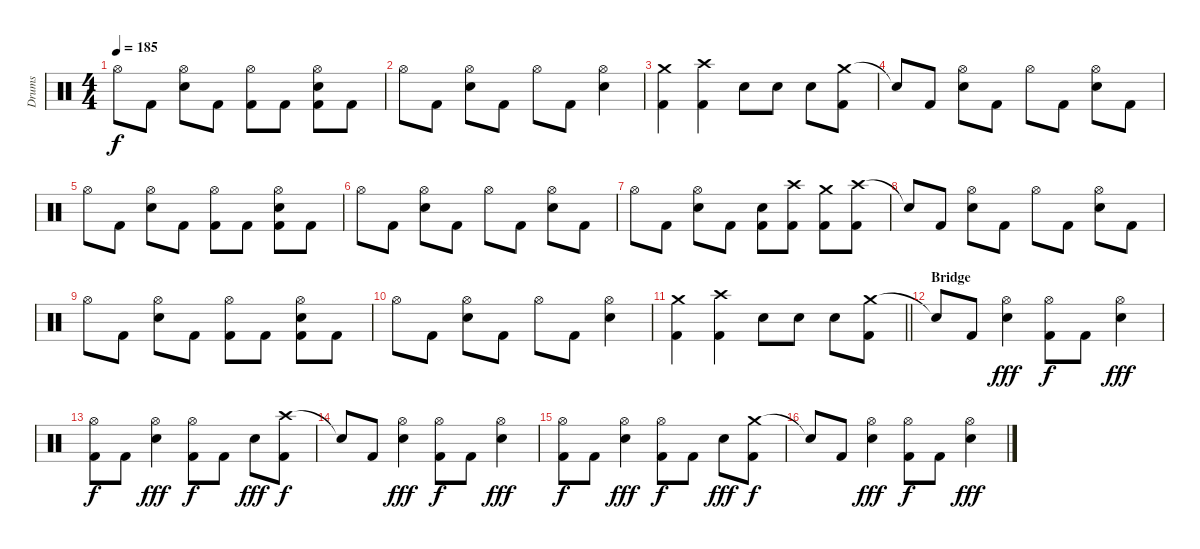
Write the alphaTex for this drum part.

\track ("Drums" "Drums") {instrument percussion}
\staff {score}
\articulation defaults
\ts (4 4)
\tempo 185
\clef neutral
\ks c "Hi-Hat (open)".8{dy f} "Kick (hit) 2".8
("Hi-Hat (open)" "Electric Snare (hit)").8 "Kick (hit) 2".8 ("Hi-Hat (open)" "Kick (hit) 2").8 "Kick (hit) 2".8 ("Hi-Hat (open)" "Electric Snare (hit)" "Kick (hit) 2").8 "Kick (hit) 2".8 |
"Hi-Hat (open)".8 "Kick (hit) 2".8 ("Hi-Hat (open)" "Electric Snare (hit)").8 "Kick (hit) 2".8 "Hi-Hat (open)".8 "Kick (hit) 2".8 ("Hi-Hat (open)" "Electric Snare (hit)").4 |
("Crash medium (hit)" "Kick (hit) 2").4 ("Crash high (hit)" "Kick (hit) 2").4 "Electric Snare (hit)".8 "Electric Snare (hit)".8 "Electric Snare (hit)".8 ("Crash medium (hit)" "Kick (hit) 2").8 |
"Snare (hit)"{t}.8 "Kick (hit) 2".8 ("Hi-Hat (open)" "Electric Snare (hit)").8 "Kick (hit) 2".8 "Hi-Hat (open)".8 "Kick (hit) 2".8 ("Hi-Hat (open)" "Electric Snare (hit)").8 "Kick (hit) 2".8 |
"Hi-Hat (open)".8 "Kick (hit) 2".8 ("Hi-Hat (open)" "Electric Snare (hit)").8 "Kick (hit) 2".8 ("Hi-Hat (open)" "Kick (hit) 2").8 "Kick (hit) 2".8 ("Hi-Hat (open)" "Electric Snare (hit)" "Kick (hit) 2").8 "Kick (hit) 2".8 |
"Hi-Hat (open)".8 "Kick (hit) 2".8 ("Hi-Hat (open)" "Electric Snare (hit)").8 "Kick (hit) 2".8 "Hi-Hat (open)".8 "Kick (hit) 2".8 ("Hi-Hat (open)" "Electric Snare (hit)").8 "Kick (hit) 2".8 |
"Hi-Hat (open)".8 "Kick (hit) 2".8 ("Hi-Hat (open)" "Electric Snare (hit)").8 "Kick (hit) 2".8 ("Electric Snare (hit)" "Kick (hit) 2").8 ("Crash high (hit)" "Kick (hit) 2").8 ("Crash medium (hit)" "Kick (hit) 2").8 ("Crash high (hit)" "Kick (hit) 2").8 |
"Snare (hit)"{t}.8 "Kick (hit) 2".8 ("Hi-Hat (open)" "Electric Snare (hit)").8 "Kick (hit) 2".8 "Hi-Hat (open)".8 "Kick (hit) 2".8 ("Hi-Hat (open)" "Electric Snare (hit)").8 "Kick (hit) 2".8 |
"Hi-Hat (open)".8 "Kick (hit) 2".8 ("Hi-Hat (open)" "Electric Snare (hit)").8 "Kick (hit) 2".8 ("Hi-Hat (open)" "Kick (hit) 2").8 "Kick (hit) 2".8 ("Hi-Hat (open)" "Electric Snare (hit)" "Kick (hit) 2").8 "Kick (hit) 2".8 |
"Hi-Hat (open)".8 "Kick (hit) 2".8 ("Hi-Hat (open)" "Electric Snare (hit)").8 "Kick (hit) 2".8 "Hi-Hat (open)".8 "Kick (hit) 2".8 ("Hi-Hat (open)" "Electric Snare (hit)").4 |
\barLineRight lightlight
("Crash medium (hit)" "Kick (hit) 2").4 ("Crash high (hit)" "Kick (hit) 2").4 "Electric Snare (hit)".8 "Electric Snare (hit)".8 "Electric Snare (hit)".8 ("Crash medium (hit)" "Kick (hit) 2").8 |
\section ("" "Bridge")
"Snare (hit)"{t}.8 "Kick (hit) 2".8 ("Hi-Hat (open)" "Electric Snare (hit)").4{dy fff} ("Hi-Hat (open)" "Kick (hit) 2").8{dy f} "Kick (hit) 2".8 ("Hi-Hat (open)" "Electric Snare (hit)").4{dy fff} |
("Hi-Hat (open)" "Kick (hit) 2").8{dy f} "Kick (hit) 2".8 ("Hi-Hat (open)" "Electric Snare (hit)").4{dy fff} ("Hi-Hat (open)" "Kick (hit) 2").8{dy f} "Kick (hit) 2".8 "Electric Snare (hit)".8{dy fff} ("Crash high (hit)" "Kick (hit) 2").8{dy f} |
"Snare (hit)"{t}.8 "Kick (hit) 2".8 ("Hi-Hat (open)" "Electric Snare (hit)").4{dy fff} ("Hi-Hat (open)" "Kick (hit) 2").8{dy f} "Kick (hit) 2".8 ("Hi-Hat (open)" "Electric Snare (hit)").4{dy fff} |
("Hi-Hat (open)" "Kick (hit) 2").8{dy f} "Kick (hit) 2".8 ("Hi-Hat (open)" "Electric Snare (hit)").4{dy fff} ("Hi-Hat (open)" "Kick (hit) 2").8{dy f} "Kick (hit) 2".8 "Electric Snare (hit)".8{dy fff} ("Crash medium (hit)" "Kick (hit) 2").8{dy f} |
"Snare (hit)"{t}.8 "Kick (hit) 2".8 ("Hi-Hat (open)" "Electric Snare (hit)").4{dy fff} ("Hi-Hat (open)" "Kick (hit) 2").8{dy f} "Kick (hit) 2".8 ("Hi-Hat (open)" "Electric Snare (hit)").4{dy fff}
